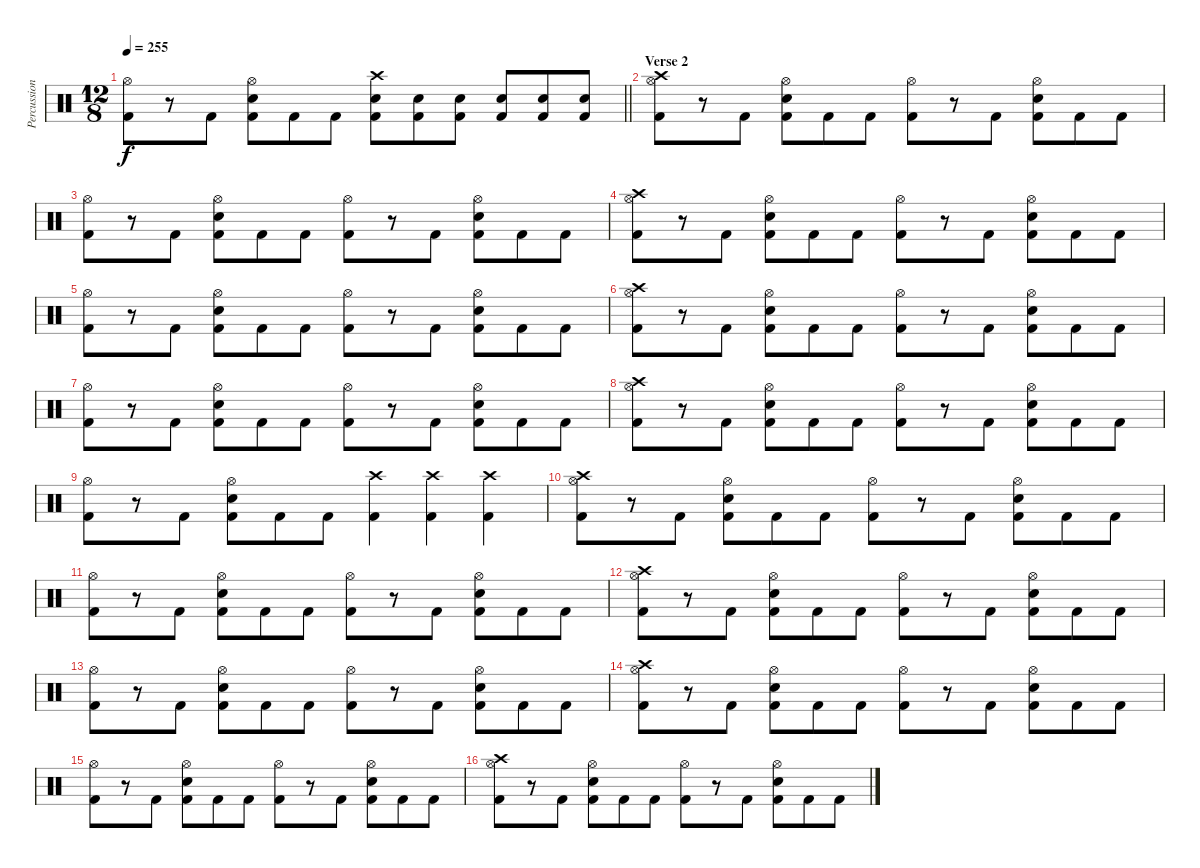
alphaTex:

\track ("Percussion" "Percussion") {instrument percussion}
\staff {score}
\articulation defaults
\ts (12 8)
\tempo 255
\clef neutral
\barLineRight lightlight
\ks c
("Hi-Hat (open)" "Kick (hit) 2").8{dy f} r.8 "Kick (hit) 2".8 ("Hi-Hat (open)" "Snare (hit) 2" "Kick (hit) 2").8 "Kick (hit) 2".8 "Kick (hit) 2".8 ("Crash high (hit)" "Snare (hit) 2" "Kick (hit) 2").8 ("Snare (hit) 2" "Kick (hit) 2").8 ("Snare (hit) 2" "Kick (hit) 2").8 ("Snare (hit) 2" "Kick (hit) 2").8 ("Snare (hit) 2" "Kick (hit) 2").8 ("Snare (hit) 2" "Kick (hit) 2").8 |
\section ("" "Verse 2")
("Crash high (hit)" "Hi-Hat (open)" "Kick (hit) 2").8 r.8 "Kick (hit) 2".8 ("Hi-Hat (open)" "Snare (hit) 2" "Kick (hit) 2").8 "Kick (hit) 2".8 "Kick (hit) 2".8 ("Hi-Hat (open)" "Kick (hit) 2").8 r.8 "Kick (hit) 2".8 ("Hi-Hat (open)" "Snare (hit) 2" "Kick (hit) 2").8 "Kick (hit) 2".8 "Kick (hit) 2".8 |
("Hi-Hat (open)" "Kick (hit) 2").8 r.8 "Kick (hit) 2".8 ("Hi-Hat (open)" "Snare (hit) 2" "Kick (hit) 2").8 "Kick (hit) 2".8 "Kick (hit) 2".8 ("Hi-Hat (open)" "Kick (hit) 2").8 r.8 "Kick (hit) 2".8 ("Hi-Hat (open)" "Snare (hit) 2" "Kick (hit) 2").8 "Kick (hit) 2".8 "Kick (hit) 2".8 |
("Crash high (hit)" "Hi-Hat (open)" "Kick (hit) 2").8 r.8 "Kick (hit) 2".8 ("Hi-Hat (open)" "Snare (hit) 2" "Kick (hit) 2").8 "Kick (hit) 2".8 "Kick (hit) 2".8 ("Hi-Hat (open)" "Kick (hit) 2").8 r.8 "Kick (hit) 2".8 ("Hi-Hat (open)" "Snare (hit) 2" "Kick (hit) 2").8 "Kick (hit) 2".8 "Kick (hit) 2".8 |
("Hi-Hat (open)" "Kick (hit) 2").8 r.8 "Kick (hit) 2".8 ("Hi-Hat (open)" "Snare (hit) 2" "Kick (hit) 2").8 "Kick (hit) 2".8 "Kick (hit) 2".8 ("Hi-Hat (open)" "Kick (hit) 2").8 r.8 "Kick (hit) 2".8 ("Hi-Hat (open)" "Snare (hit) 2" "Kick (hit) 2").8 "Kick (hit) 2".8 "Kick (hit) 2".8 |
("Crash high (hit)" "Hi-Hat (open)" "Kick (hit) 2").8 r.8 "Kick (hit) 2".8 ("Hi-Hat (open)" "Snare (hit) 2" "Kick (hit) 2").8 "Kick (hit) 2".8 "Kick (hit) 2".8 ("Hi-Hat (open)" "Kick (hit) 2").8 r.8 "Kick (hit) 2".8 ("Hi-Hat (open)" "Snare (hit) 2" "Kick (hit) 2").8 "Kick (hit) 2".8 "Kick (hit) 2".8 |
("Hi-Hat (open)" "Kick (hit) 2").8 r.8 "Kick (hit) 2".8 ("Hi-Hat (open)" "Snare (hit) 2" "Kick (hit) 2").8 "Kick (hit) 2".8 "Kick (hit) 2".8 ("Hi-Hat (open)" "Kick (hit) 2").8 r.8 "Kick (hit) 2".8 ("Hi-Hat (open)" "Snare (hit) 2" "Kick (hit) 2").8 "Kick (hit) 2".8 "Kick (hit) 2".8 |
("Crash high (hit)" "Hi-Hat (open)" "Kick (hit) 2").8 r.8 "Kick (hit) 2".8 ("Hi-Hat (open)" "Snare (hit) 2" "Kick (hit) 2").8 "Kick (hit) 2".8 "Kick (hit) 2".8 ("Hi-Hat (open)" "Kick (hit) 2").8 r.8 "Kick (hit) 2".8 ("Hi-Hat (open)" "Snare (hit) 2" "Kick (hit) 2").8 "Kick (hit) 2".8 "Kick (hit) 2".8 |
("Hi-Hat (open)" "Kick (hit) 2").8 r.8 "Kick (hit) 2".8 ("Hi-Hat (open)" "Snare (hit) 2" "Kick (hit) 2").8 "Kick (hit) 2".8 "Kick (hit) 2".8 ("Crash high (hit)" "Kick (hit) 2").4 ("Crash high (hit)" "Kick (hit) 2").4 ("Crash high (hit)" "Kick (hit) 2").4 |
("Crash high (hit)" "Hi-Hat (open)" "Kick (hit) 2").8 r.8 "Kick (hit) 2".8 ("Hi-Hat (open)" "Snare (hit) 2" "Kick (hit) 2").8 "Kick (hit) 2".8 "Kick (hit) 2".8 ("Hi-Hat (open)" "Kick (hit) 2").8 r.8 "Kick (hit) 2".8 ("Hi-Hat (open)" "Snare (hit) 2" "Kick (hit) 2").8 "Kick (hit) 2".8 "Kick (hit) 2".8 |
("Hi-Hat (open)" "Kick (hit) 2").8 r.8 "Kick (hit) 2".8 ("Hi-Hat (open)" "Snare (hit) 2" "Kick (hit) 2").8 "Kick (hit) 2".8 "Kick (hit) 2".8 ("Hi-Hat (open)" "Kick (hit) 2").8 r.8 "Kick (hit) 2".8 ("Hi-Hat (open)" "Snare (hit) 2" "Kick (hit) 2").8 "Kick (hit) 2".8 "Kick (hit) 2".8 |
("Crash high (hit)" "Hi-Hat (open)" "Kick (hit) 2").8 r.8 "Kick (hit) 2".8 ("Hi-Hat (open)" "Snare (hit) 2" "Kick (hit) 2").8 "Kick (hit) 2".8 "Kick (hit) 2".8 ("Hi-Hat (open)" "Kick (hit) 2").8 r.8 "Kick (hit) 2".8 ("Hi-Hat (open)" "Snare (hit) 2" "Kick (hit) 2").8 "Kick (hit) 2".8 "Kick (hit) 2".8 |
("Hi-Hat (open)" "Kick (hit) 2").8 r.8 "Kick (hit) 2".8 ("Hi-Hat (open)" "Snare (hit) 2" "Kick (hit) 2").8 "Kick (hit) 2".8 "Kick (hit) 2".8 ("Hi-Hat (open)" "Kick (hit) 2").8 r.8 "Kick (hit) 2".8 ("Hi-Hat (open)" "Snare (hit) 2" "Kick (hit) 2").8 "Kick (hit) 2".8 "Kick (hit) 2".8 |
("Crash high (hit)" "Hi-Hat (open)" "Kick (hit) 2").8 r.8 "Kick (hit) 2".8 ("Hi-Hat (open)" "Snare (hit) 2" "Kick (hit) 2").8 "Kick (hit) 2".8 "Kick (hit) 2".8 ("Hi-Hat (open)" "Kick (hit) 2").8 r.8 "Kick (hit) 2".8 ("Hi-Hat (open)" "Snare (hit) 2" "Kick (hit) 2").8 "Kick (hit) 2".8 "Kick (hit) 2".8 |
("Hi-Hat (open)" "Kick (hit) 2").8 r.8 "Kick (hit) 2".8 ("Hi-Hat (open)" "Snare (hit) 2" "Kick (hit) 2").8 "Kick (hit) 2".8 "Kick (hit) 2".8 ("Hi-Hat (open)" "Kick (hit) 2").8 r.8 "Kick (hit) 2".8 ("Hi-Hat (open)" "Snare (hit) 2" "Kick (hit) 2").8 "Kick (hit) 2".8 "Kick (hit) 2".8 |
("Crash high (hit)" "Hi-Hat (open)" "Kick (hit) 2").8 r.8 "Kick (hit) 2".8 ("Hi-Hat (open)" "Snare (hit) 2" "Kick (hit) 2").8 "Kick (hit) 2".8 "Kick (hit) 2".8 ("Hi-Hat (open)" "Kick (hit) 2").8 r.8 "Kick (hit) 2".8 ("Hi-Hat (open)" "Snare (hit) 2" "Kick (hit) 2").8 "Kick (hit) 2".8 "Kick (hit) 2".8
